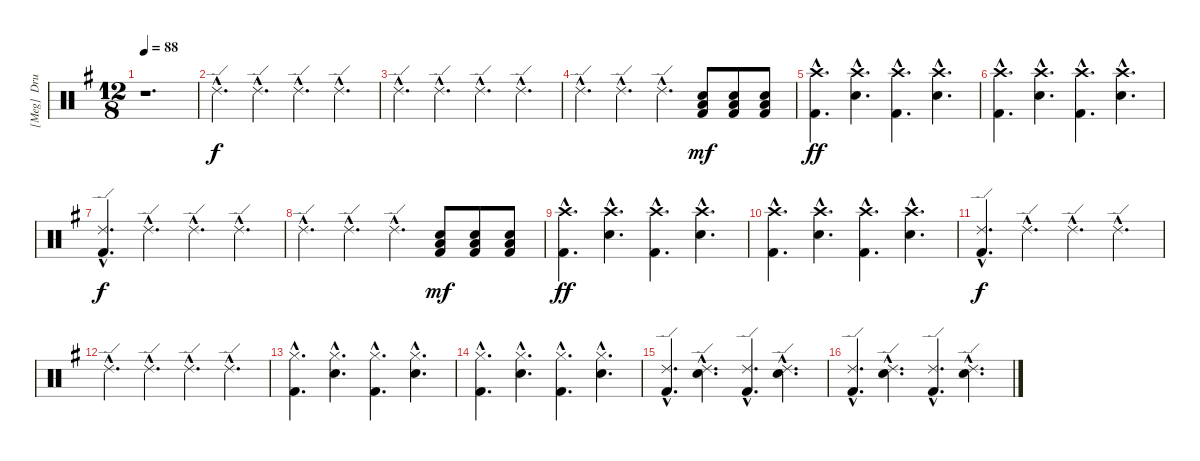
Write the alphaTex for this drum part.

\track ("[Meg]  Drums" "[Meg]  Dru") {instrument percussion}
\staff {score}
\articulation defaults
\ts (12 8)
\tempo 88
\clef neutral
\ks g
r.1{d dy f} |
"Ride (edge) 2"{hac}.4{d} "Ride (edge) 2"{hac}.4{d} "Ride (edge) 2"{hac}.4{d} "Ride (edge) 2"{hac}.4{d} |
"Ride (edge) 2"{hac}.4{d} "Ride (edge) 2"{hac}.4{d} "Ride (edge) 2"{hac}.4{d} "Ride (edge) 2"{hac}.4{d} |
"Ride (edge) 2"{hac}.4{d} "Ride (edge) 2"{hac}.4{d} "Ride (edge) 2"{hac}.4{d} ("Snare (hit) 2" "Low Floor Tom (hit)" "Kick (hit) 2").8{dy mf} ("Snare (hit) 2" "Low Floor Tom (hit)" "Kick (hit) 2").8 ("Snare (hit) 2" "Low Floor Tom (hit)" "Kick (hit) 2").8 |
("Crash high (hit)"{hac} "Kick (hit) 2"{hac}).4{d dy ff} ("Crash high (hit)"{hac} "Snare (hit) 2"{hac}).4{d} ("Crash high (hit)"{hac} "Kick (hit) 2"{hac}).4{d} ("Crash high (hit)"{hac} "Snare (hit) 2"{hac}).4{d} |
("Crash high (hit)"{hac} "Kick (hit) 2"{hac}).4{d} ("Crash high (hit)"{hac} "Snare (hit) 2"{hac}).4{d} ("Crash high (hit)"{hac} "Kick (hit) 2"{hac}).4{d} ("Crash high (hit)"{hac} "Snare (hit) 2"{hac}).4{d} |
("Ride (edge) 2"{hac} "Kick (hit) 2"{hac}).4{d dy f} "Ride (edge) 2"{hac}.4{d} "Ride (edge) 2"{hac}.4{d} "Ride (edge) 2"{hac}.4{d} |
"Ride (edge) 2"{hac}.4{d} "Ride (edge) 2"{hac}.4{d} "Ride (edge) 2"{hac}.4{d} ("Snare (hit) 2" "Low Floor Tom (hit)" "Kick (hit) 2").8{dy mf} ("Snare (hit) 2" "Low Floor Tom (hit)" "Kick (hit) 2").8 ("Snare (hit) 2" "Low Floor Tom (hit)" "Kick (hit) 2").8 |
("Crash high (hit)"{hac} "Kick (hit) 2"{hac}).4{d dy ff} ("Crash high (hit)"{hac} "Snare (hit) 2"{hac}).4{d} ("Crash high (hit)"{hac} "Kick (hit) 2"{hac}).4{d} ("Crash high (hit)"{hac} "Snare (hit) 2"{hac}).4{d} |
("Crash high (hit)"{hac} "Kick (hit) 2"{hac}).4{d} ("Crash high (hit)"{hac} "Snare (hit) 2"{hac}).4{d} ("Crash high (hit)"{hac} "Kick (hit) 2"{hac}).4{d} ("Crash high (hit)"{hac} "Snare (hit) 2"{hac}).4{d} |
("Ride (edge) 2"{hac} "Kick (hit) 2"{hac}).4{d dy f} "Ride (edge) 2"{hac}.4{d} "Ride (edge) 2"{hac}.4{d} "Ride (edge) 2"{hac}.4{d} |
"Ride (edge) 2"{hac}.4{d} "Ride (edge) 2"{hac}.4{d} "Ride (edge) 2"{hac}.4{d} "Ride (edge) 2"{hac}.4{d} |
("Hi-Hat (closed)"{hac} "Kick (hit) 2"{hac}).4{d} ("Hi-Hat (closed)"{hac} "Snare (hit) 2"{hac}).4{d} ("Hi-Hat (closed)"{hac} "Kick (hit) 2"{hac}).4{d} ("Hi-Hat (closed)"{hac} "Snare (hit) 2"{hac}).4{d} |
("Hi-Hat (closed)"{hac} "Kick (hit) 2"{hac}).4{d} ("Hi-Hat (closed)"{hac} "Snare (hit) 2"{hac}).4{d} ("Hi-Hat (closed)"{hac} "Kick (hit) 2"{hac}).4{d} ("Hi-Hat (closed)"{hac} "Snare (hit) 2"{hac}).4{d} |
("Ride (edge) 2"{hac} "Kick (hit) 2"{hac}).4{d} ("Ride (edge) 2"{hac} "Snare (hit) 2"{hac}).4{d} ("Ride (edge) 2"{hac} "Kick (hit) 2"{hac}).4{d} ("Ride (edge) 2"{hac} "Snare (hit) 2"{hac}).4{d} |
("Ride (edge) 2"{hac} "Kick (hit) 2"{hac}).4{d} ("Ride (edge) 2"{hac} "Snare (hit) 2"{hac}).4{d} ("Ride (edge) 2"{hac} "Kick (hit) 2"{hac}).4{d} ("Ride (edge) 2"{hac} "Snare (hit) 2"{hac}).4{d}
